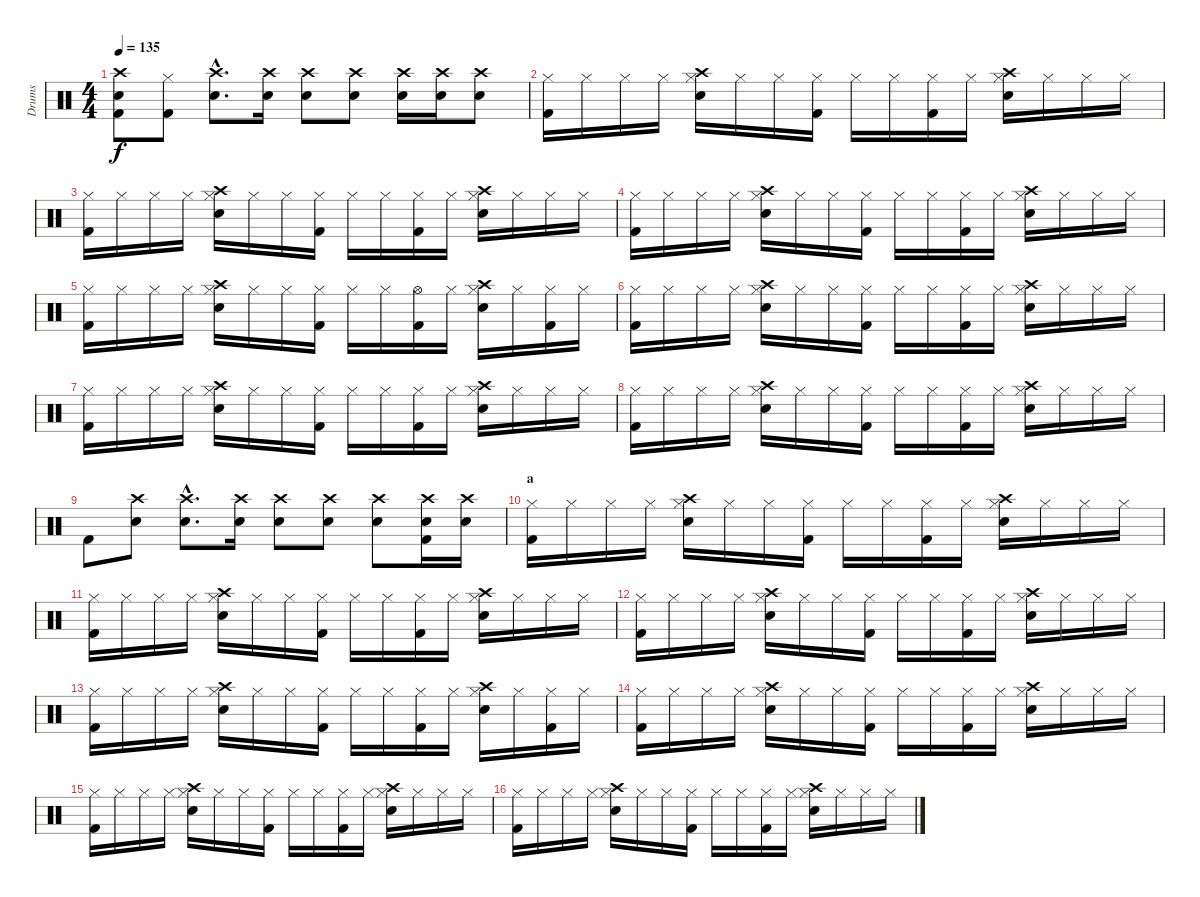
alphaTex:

\track ("Drums" "Drums") {instrument percussion}
\staff {score}
\articulation defaults
\ts (4 4)
\tempo 135
\clef neutral
\ks c
("Crash high (hit)" "Snare (hit) 2" "Kick (hit) 2").8{dy f} ("Hi-Hat (closed)" "Kick (hit) 2").8 ("Crash high (hit)"{hac} "Snare (hit) 2"{hac}).8{d} ("Crash high (hit)" "Snare (hit) 2").16 ("Crash high (hit)" "Snare (hit) 2").8 ("Crash high (hit)" "Snare (hit) 2").8 ("Crash high (hit)" "Snare (hit) 2").16 ("Crash high (hit)" "Snare (hit) 2").16 ("Crash high (hit)" "Snare (hit) 2").8 |
("Hi-Hat (closed)" "Kick (hit) 2").16 "Hi-Hat (closed)".16 "Hi-Hat (closed)".16 "Hi-Hat (closed)".16 ("Crash high (hit)" "Hi-Hat (closed)" "Snare (hit) 2").16 "Hi-Hat (closed)".16 "Hi-Hat (closed)".16 ("Hi-Hat (closed)" "Kick (hit) 2").16 "Hi-Hat (closed)".16 "Hi-Hat (closed)".16 ("Hi-Hat (closed)" "Kick (hit) 2").16 "Hi-Hat (closed)".16 ("Crash high (hit)" "Hi-Hat (closed)" "Snare (hit) 2").16 "Hi-Hat (closed)".16 "Hi-Hat (closed)".16 "Hi-Hat (closed)".16 |
("Hi-Hat (closed)" "Kick (hit) 2").16 "Hi-Hat (closed)".16 "Hi-Hat (closed)".16 "Hi-Hat (closed)".16 ("Crash high (hit)" "Hi-Hat (closed)" "Snare (hit) 2").16 "Hi-Hat (closed)".16 "Hi-Hat (closed)".16 ("Hi-Hat (closed)" "Kick (hit) 2").16 "Hi-Hat (closed)".16 "Hi-Hat (closed)".16 ("Hi-Hat (closed)" "Kick (hit) 2").16 "Hi-Hat (closed)".16 ("Crash high (hit)" "Hi-Hat (closed)" "Snare (hit) 2").16 "Hi-Hat (closed)".16 "Hi-Hat (closed)".16 "Hi-Hat (closed)".16 |
("Hi-Hat (closed)" "Kick (hit) 2").16 "Hi-Hat (closed)".16 "Hi-Hat (closed)".16 "Hi-Hat (closed)".16 ("Crash high (hit)" "Hi-Hat (closed)" "Snare (hit) 2").16 "Hi-Hat (closed)".16 "Hi-Hat (closed)".16 ("Hi-Hat (closed)" "Kick (hit) 2").16 "Hi-Hat (closed)".16 "Hi-Hat (closed)".16 ("Hi-Hat (closed)" "Kick (hit) 2").16 "Hi-Hat (closed)".16 ("Crash high (hit)" "Hi-Hat (closed)" "Snare (hit) 2").16 "Hi-Hat (closed)".16 "Hi-Hat (closed)".16 "Hi-Hat (closed)".16 |
("Hi-Hat (closed)" "Kick (hit) 2").16 "Hi-Hat (closed)".16 "Hi-Hat (closed)".16 "Hi-Hat (closed)".16 ("Crash high (hit)" "Hi-Hat (closed)" "Snare (hit) 2").16 "Hi-Hat (closed)".16 "Hi-Hat (closed)".16 ("Hi-Hat (closed)" "Kick (hit) 2").16 "Hi-Hat (closed)".16 "Hi-Hat (closed)".16 ("Hi-Hat (open)" "Kick (hit) 2").16 "Hi-Hat (closed)".16 ("Crash high (hit)" "Hi-Hat (closed)" "Snare (hit) 2").16 "Hi-Hat (closed)".16 ("Hi-Hat (closed)" "Kick (hit) 2").16 "Hi-Hat (closed)".16 |
("Hi-Hat (closed)" "Kick (hit) 2").16 "Hi-Hat (closed)".16 "Hi-Hat (closed)".16 "Hi-Hat (closed)".16 ("Crash high (hit)" "Hi-Hat (closed)" "Snare (hit) 2").16 "Hi-Hat (closed)".16 "Hi-Hat (closed)".16 ("Hi-Hat (closed)" "Kick (hit) 2").16 "Hi-Hat (closed)".16 "Hi-Hat (closed)".16 ("Hi-Hat (closed)" "Kick (hit) 2").16 "Hi-Hat (closed)".16 ("Crash high (hit)" "Hi-Hat (closed)" "Snare (hit) 2").16 "Hi-Hat (closed)".16 "Hi-Hat (closed)".16 "Hi-Hat (closed)".16 |
("Hi-Hat (closed)" "Kick (hit) 2").16 "Hi-Hat (closed)".16 "Hi-Hat (closed)".16 "Hi-Hat (closed)".16 ("Crash high (hit)" "Hi-Hat (closed)" "Snare (hit) 2").16 "Hi-Hat (closed)".16 "Hi-Hat (closed)".16 ("Hi-Hat (closed)" "Kick (hit) 2").16 "Hi-Hat (closed)".16 "Hi-Hat (closed)".16 ("Hi-Hat (closed)" "Kick (hit) 2").16 "Hi-Hat (closed)".16 ("Crash high (hit)" "Hi-Hat (closed)" "Snare (hit) 2").16 "Hi-Hat (closed)".16 "Hi-Hat (closed)".16 "Hi-Hat (closed)".16 |
("Hi-Hat (closed)" "Kick (hit) 2").16 "Hi-Hat (closed)".16 "Hi-Hat (closed)".16 "Hi-Hat (closed)".16 ("Crash high (hit)" "Hi-Hat (closed)" "Snare (hit) 2").16 "Hi-Hat (closed)".16 "Hi-Hat (closed)".16 ("Hi-Hat (closed)" "Kick (hit) 2").16 "Hi-Hat (closed)".16 "Hi-Hat (closed)".16 ("Hi-Hat (closed)" "Kick (hit) 2").16 "Hi-Hat (closed)".16 ("Crash high (hit)" "Hi-Hat (closed)" "Snare (hit) 2").16 "Hi-Hat (closed)".16 "Hi-Hat (closed)".16 "Hi-Hat (closed)".16 |
"Kick (hit) 2".8 ("Crash high (hit)" "Snare (hit) 2").8 ("Crash high (hit)"{hac} "Snare (hit) 2"{hac}).8{d} ("Crash high (hit)" "Snare (hit) 2").16 ("Crash high (hit)" "Snare (hit) 2").8 ("Crash high (hit)" "Snare (hit) 2").8 ("Crash high (hit)" "Snare (hit) 2").8 ("Crash high (hit)" "Snare (hit) 2" "Kick (hit) 2").16 ("Crash high (hit)" "Snare (hit) 2").16 |
\section ("" "a")
("Hi-Hat (closed)" "Kick (hit) 2").16 "Hi-Hat (closed)".16 "Hi-Hat (closed)".16 "Hi-Hat (closed)".16 ("Crash high (hit)" "Hi-Hat (closed)" "Snare (hit) 2").16 "Hi-Hat (closed)".16 "Hi-Hat (closed)".16 ("Hi-Hat (closed)" "Kick (hit) 2").16 "Hi-Hat (closed)".16 "Hi-Hat (closed)".16 ("Hi-Hat (closed)" "Kick (hit) 2").16 "Hi-Hat (closed)".16 ("Crash high (hit)" "Hi-Hat (closed)" "Snare (hit) 2").16 "Hi-Hat (closed)".16 "Hi-Hat (closed)".16 "Hi-Hat (closed)".16 |
("Hi-Hat (closed)" "Kick (hit) 2").16 "Hi-Hat (closed)".16 "Hi-Hat (closed)".16 "Hi-Hat (closed)".16 ("Crash high (hit)" "Hi-Hat (closed)" "Snare (hit) 2").16 "Hi-Hat (closed)".16 "Hi-Hat (closed)".16 ("Hi-Hat (closed)" "Kick (hit) 2").16 "Hi-Hat (closed)".16 "Hi-Hat (closed)".16 ("Hi-Hat (closed)" "Kick (hit) 2").16 "Hi-Hat (closed)".16 ("Crash high (hit)" "Hi-Hat (closed)" "Snare (hit) 2").16 "Hi-Hat (closed)".16 "Hi-Hat (closed)".16 "Hi-Hat (closed)".16 |
("Hi-Hat (closed)" "Kick (hit) 2").16 "Hi-Hat (closed)".16 "Hi-Hat (closed)".16 "Hi-Hat (closed)".16 ("Crash high (hit)" "Hi-Hat (closed)" "Snare (hit) 2").16 "Hi-Hat (closed)".16 "Hi-Hat (closed)".16 ("Hi-Hat (closed)" "Kick (hit) 2").16 "Hi-Hat (closed)".16 "Hi-Hat (closed)".16 ("Hi-Hat (closed)" "Kick (hit) 2").16 "Hi-Hat (closed)".16 ("Crash high (hit)" "Hi-Hat (closed)" "Snare (hit) 2").16 "Hi-Hat (closed)".16 "Hi-Hat (closed)".16 "Hi-Hat (closed)".16 |
("Hi-Hat (closed)" "Kick (hit) 2").16 "Hi-Hat (closed)".16 "Hi-Hat (closed)".16 "Hi-Hat (closed)".16 ("Crash high (hit)" "Hi-Hat (closed)" "Snare (hit) 2").16 "Hi-Hat (closed)".16 "Hi-Hat (closed)".16 ("Hi-Hat (closed)" "Kick (hit) 2").16 "Hi-Hat (closed)".16 "Hi-Hat (closed)".16 ("Hi-Hat (closed)" "Kick (hit) 2").16 "Hi-Hat (closed)".16 ("Crash high (hit)" "Hi-Hat (closed)" "Snare (hit) 2").16 "Hi-Hat (closed)".16 ("Hi-Hat (closed)" "Kick (hit) 2").16 "Hi-Hat (closed)".16 |
("Hi-Hat (closed)" "Kick (hit) 2").16 "Hi-Hat (closed)".16 "Hi-Hat (closed)".16 "Hi-Hat (closed)".16 ("Crash high (hit)" "Hi-Hat (closed)" "Snare (hit) 2").16 "Hi-Hat (closed)".16 "Hi-Hat (closed)".16 ("Hi-Hat (closed)" "Kick (hit) 2").16 "Hi-Hat (closed)".16 "Hi-Hat (closed)".16 ("Hi-Hat (closed)" "Kick (hit) 2").16 "Hi-Hat (closed)".16 ("Crash high (hit)" "Hi-Hat (closed)" "Snare (hit) 2").16 "Hi-Hat (closed)".16 "Hi-Hat (closed)".16 "Hi-Hat (closed)".16 |
("Hi-Hat (closed)" "Kick (hit) 2").16 "Hi-Hat (closed)".16 "Hi-Hat (closed)".16 "Hi-Hat (closed)".16 ("Crash high (hit)" "Hi-Hat (closed)" "Snare (hit) 2").16 "Hi-Hat (closed)".16 "Hi-Hat (closed)".16 ("Hi-Hat (closed)" "Kick (hit) 2").16 "Hi-Hat (closed)".16 "Hi-Hat (closed)".16 ("Hi-Hat (closed)" "Kick (hit) 2").16 "Hi-Hat (closed)".16 ("Crash high (hit)" "Hi-Hat (closed)" "Snare (hit) 2").16 "Hi-Hat (closed)".16 "Hi-Hat (closed)".16 "Hi-Hat (closed)".16 |
("Hi-Hat (closed)" "Kick (hit) 2").16 "Hi-Hat (closed)".16 "Hi-Hat (closed)".16 "Hi-Hat (closed)".16 ("Crash high (hit)" "Hi-Hat (closed)" "Snare (hit) 2").16 "Hi-Hat (closed)".16 "Hi-Hat (closed)".16 ("Hi-Hat (closed)" "Kick (hit) 2").16 "Hi-Hat (closed)".16 "Hi-Hat (closed)".16 ("Hi-Hat (closed)" "Kick (hit) 2").16 "Hi-Hat (closed)".16 ("Crash high (hit)" "Hi-Hat (closed)" "Snare (hit) 2").16 "Hi-Hat (closed)".16 "Hi-Hat (closed)".16 "Hi-Hat (closed)".16
